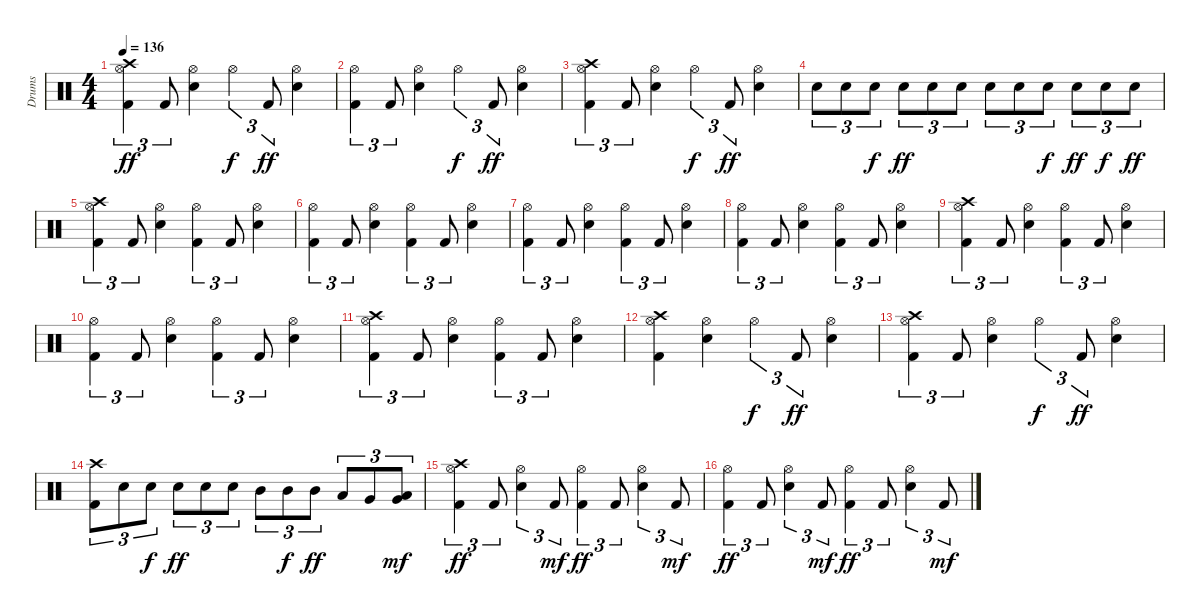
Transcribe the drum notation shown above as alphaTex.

\track ("Drums" "Drums") {instrument percussion}
\staff {score}
\articulation defaults
\ts (4 4)
\tempo 136
\clef neutral
\ks c
("Kick (hit) 2" "Crash high (hit)" "Hi-Hat (open)").4{tu (3 2) dy ff} "Kick (hit) 2".8{tu (3 2)} ("Snare (hit) 2" "Hi-Hat (open)").4 "Hi-Hat (open)".4{tu (3 2) dy f} "Kick (hit) 2".8{tu (3 2) dy ff} ("Snare (hit) 2" "Hi-Hat (open)").4 |
("Hi-Hat (open)" "Kick (hit) 2").4{tu (3 2)} "Kick (hit) 2".8{tu (3 2)} ("Hi-Hat (open)" "Snare (hit) 2").4 "Hi-Hat (open)".4{tu (3 2) dy f} "Kick (hit) 2".8{tu (3 2) dy ff} ("Snare (hit) 2" "Hi-Hat (open)").4 |
("Kick (hit) 2" "Crash high (hit)" "Hi-Hat (open)").4{tu (3 2)} "Kick (hit) 2".8{tu (3 2)} ("Snare (hit) 2" "Hi-Hat (open)").4 "Hi-Hat (open)".4{tu (3 2) dy f} "Kick (hit) 2".8{tu (3 2) dy ff} ("Snare (hit) 2" "Hi-Hat (open)").4 |
"Snare (hit) 2".8{tu (3 2)} "Snare (hit) 2".8{tu (3 2)} "Snare (hit) 2".8{tu (3 2) dy f} "Snare (hit) 2".8{tu (3 2) dy ff} "Snare (hit) 2".8{tu (3 2)} "Snare (hit) 2".8{tu (3 2)} "Snare (hit) 2".8{tu (3 2)} "Snare (hit) 2".8{tu (3 2)} "Snare (hit) 2".8{tu (3 2) dy f} "Snare (hit) 2".8{tu (3 2) dy ff} "Snare (hit) 2".8{tu (3 2) dy f} "Snare (hit) 2".8{tu (3 2) dy ff} |
("Kick (hit) 2" "Crash high (hit)" "Hi-Hat (open)").4{tu (3 2)} "Kick (hit) 2".8{tu (3 2)} ("Hi-Hat (open)" "Snare (hit) 2").4 ("Kick (hit) 2" "Hi-Hat (open)").4{tu (3 2)} "Kick (hit) 2".8{tu (3 2)} ("Hi-Hat (open)" "Snare (hit) 2").4 |
("Kick (hit) 2" "Hi-Hat (open)").4{tu (3 2)} "Kick (hit) 2".8{tu (3 2)} ("Snare (hit) 2" "Hi-Hat (open)").4 ("Hi-Hat (open)" "Kick (hit) 2").4{tu (3 2)} "Kick (hit) 2".8{tu (3 2)} ("Snare (hit) 2" "Hi-Hat (open)").4 |
("Kick (hit) 2" "Hi-Hat (open)").4{tu (3 2)} "Kick (hit) 2".8{tu (3 2)} ("Snare (hit) 2" "Hi-Hat (open)").4 ("Hi-Hat (open)" "Kick (hit) 2").4{tu (3 2)} "Kick (hit) 2".8{tu (3 2)} ("Snare (hit) 2" "Hi-Hat (open)").4 |
("Kick (hit) 2" "Hi-Hat (open)").4{tu (3 2)} "Kick (hit) 2".8{tu (3 2)} ("Snare (hit) 2" "Hi-Hat (open)").4 ("Hi-Hat (open)" "Kick (hit) 2").4{tu (3 2)} "Kick (hit) 2".8{tu (3 2)} ("Snare (hit) 2" "Hi-Hat (open)").4 |
("Kick (hit) 2" "Crash high (hit)" "Hi-Hat (open)").4{tu (3 2)} "Kick (hit) 2".8{tu (3 2)} ("Hi-Hat (open)" "Snare (hit) 2").4 ("Kick (hit) 2" "Hi-Hat (open)").4{tu (3 2)} "Kick (hit) 2".8{tu (3 2)} ("Hi-Hat (open)" "Snare (hit) 2").4 |
("Kick (hit) 2" "Hi-Hat (open)").4{tu (3 2)} "Kick (hit) 2".8{tu (3 2)} ("Snare (hit) 2" "Hi-Hat (open)").4 ("Hi-Hat (open)" "Kick (hit) 2").4{tu (3 2)} "Kick (hit) 2".8{tu (3 2)} ("Snare (hit) 2" "Hi-Hat (open)").4 |
("Kick (hit) 2" "Crash high (hit)" "Hi-Hat (open)").4{tu (3 2)} "Kick (hit) 2".8{tu (3 2)} ("Hi-Hat (open)" "Snare (hit) 2").4 ("Kick (hit) 2" "Hi-Hat (open)").4{tu (3 2)} "Kick (hit) 2".8{tu (3 2)} ("Hi-Hat (open)" "Snare (hit) 2").4 |
("Hi-Hat (open)" "Crash high (hit)" "Kick (hit) 2").4 ("Hi-Hat (open)" "Snare (hit) 2").4 "Hi-Hat (open)".4{tu (3 2) dy f} "Kick (hit) 2".8{tu (3 2) dy ff} ("Hi-Hat (open)" "Snare (hit) 2").4 |
("Hi-Hat (open)" "Crash high (hit)" "Kick (hit) 2").4{tu (3 2)} "Kick (hit) 2".8{tu (3 2)} ("Snare (hit) 2" "Hi-Hat (open)").4 "Hi-Hat (open)".4{tu (3 2) dy f} "Kick (hit) 2".8{tu (3 2) dy ff} ("Snare (hit) 2" "Hi-Hat (open)").4 |
("Crash high (hit)" "Kick (hit) 2").8{tu (3 2)} "Snare (hit) 2".8{tu (3 2)} "Snare (hit) 2".8{tu (3 2) dy f} "Snare (hit) 2".8{tu (3 2) dy ff} "Snare (hit) 2".8{tu (3 2)} "Snare (hit) 2".8{tu (3 2)} "Mid Tom (hit)".8{tu (3 2)} "Mid Tom (hit)".8{tu (3 2) dy f} "Mid Tom (hit)".8{tu (3 2) dy ff} "Low Tom (hit)".8{tu (3 2)} "Very Low Tom (hit)".8{tu (3 2)} ("Low Floor Tom (hit)" "Very Low Tom (hit)").8{tu (3 2) dy mf} |
("Kick (hit) 2" "Crash high (hit)" "Hi-Hat (open)").4{tu (3 2) dy ff} "Kick (hit) 2".8{tu (3 2)} ("Hi-Hat (open)" "Snare (hit) 2").4{tu (3 2)} "Kick (hit) 2".8{tu (3 2) dy mf} ("Hi-Hat (open)" "Kick (hit) 2").4{tu (3 2) dy ff} "Kick (hit) 2".8{tu (3 2)} ("Snare (hit) 2" "Hi-Hat (open)").4{tu (3 2)} "Kick (hit) 2".8{tu (3 2) dy mf} |
("Hi-Hat (open)" "Kick (hit) 2").4{tu (3 2) dy ff} "Kick (hit) 2".8{tu (3 2)} ("Hi-Hat (open)" "Snare (hit) 2").4{tu (3 2)} "Kick (hit) 2".8{tu (3 2) dy mf} ("Kick (hit) 2" "Hi-Hat (open)").4{tu (3 2) dy ff} "Kick (hit) 2".8{tu (3 2)} ("Snare (hit) 2" "Hi-Hat (open)").4{tu (3 2)} "Kick (hit) 2".8{tu (3 2) dy mf}
